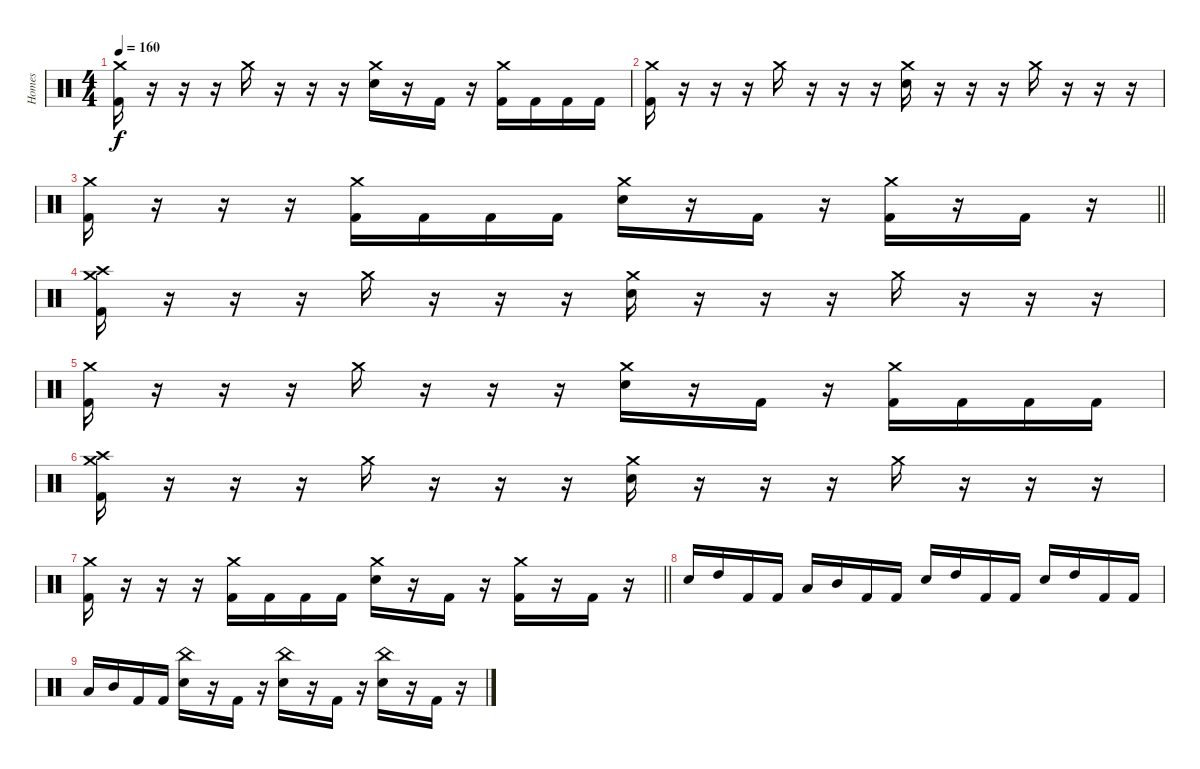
\track ("Homes" "Homes") {instrument percussion}
\staff {score}
\articulation defaults
\ts (4 4)
\tempo 160
\clef neutral
\ks c
("Crash medium (hit)" "Kick (hit) 2").16{dy f} r.16 r.16 r.16 "Crash medium (hit)".16 r.16 r.16 r.16 ("Crash medium (hit)" "Electric Snare (hit)").16 r.16 "Kick (hit) 2".16 r.16 ("Crash medium (hit)" "Kick (hit) 2").16 "Kick (hit) 2".16 "Kick (hit) 2".16 "Kick (hit) 2".16 |
("Crash medium (hit)" "Kick (hit) 2").16 r.16 r.16 r.16 "Crash medium (hit)".16 r.16 r.16 r.16 ("Crash medium (hit)" "Electric Snare (hit)").16 r.16 r.16 r.16 "Crash medium (hit)".16 r.16 r.16 r.16 |
\barLineRight lightlight
("Crash medium (hit)" "Kick (hit) 2").16 r.16 r.16 r.16 ("Crash medium (hit)" "Kick (hit) 2").16 "Kick (hit) 2".16 "Kick (hit) 2".16 "Kick (hit) 2".16 ("Crash medium (hit)" "Electric Snare (hit)").16 r.16 "Kick (hit) 2".16 r.16 ("Crash medium (hit)" "Kick (hit) 2").16 r.16 "Kick (hit) 2".16 r.16 |
("Crash high (hit)" "Crash medium (hit)" "Kick (hit) 2").16 r.16 r.16 r.16 "Crash medium (hit)".16 r.16 r.16 r.16 ("Crash medium (hit)" "Electric Snare (hit)").16 r.16 r.16 r.16 "Crash medium (hit)".16 r.16 r.16 r.16 |
("Crash medium (hit)" "Kick (hit) 2").16 r.16 r.16 r.16 "Crash medium (hit)".16 r.16 r.16 r.16 ("Crash medium (hit)" "Electric Snare (hit)").16 r.16 "Kick (hit) 2".16 r.16 ("Crash medium (hit)" "Kick (hit) 2").16 "Kick (hit) 2".16 "Kick (hit) 2".16 "Kick (hit) 2".16 |
("Crash high (hit)" "Crash medium (hit)" "Kick (hit) 2").16 r.16 r.16 r.16 "Crash medium (hit)".16 r.16 r.16 r.16 ("Crash medium (hit)" "Electric Snare (hit)").16 r.16 r.16 r.16 "Crash medium (hit)".16 r.16 r.16 r.16 |
\barLineRight lightlight
("Crash medium (hit)" "Kick (hit) 2").16 r.16 r.16 r.16 ("Crash medium (hit)" "Kick (hit) 2").16 "Kick (hit) 2".16 "Kick (hit) 2".16 "Kick (hit) 2".16 ("Crash medium (hit)" "Electric Snare (hit)").16 r.16 "Kick (hit) 2".16 r.16 ("Crash medium (hit)" "Kick (hit) 2").16 r.16 "Kick (hit) 2".16 r.16 |
"Electric Snare (hit)".16 "High Tom (hit)".16 "Kick (hit) 2".16 "Kick (hit) 2".16 "Low Tom (hit)".16 "Mid Tom (hit)".16 "Kick (hit) 2".16 "Kick (hit) 2".16 "Electric Snare (hit)".16 "High Tom (hit)".16 "Kick (hit) 2".16 "Kick (hit) 2".16 "Electric Snare (hit)".16 "High Tom (hit)".16 "Kick (hit) 2".16 "Kick (hit) 2".16 |
"Low Tom (hit)".16 "Mid Tom (hit)".16 "Kick (hit) 2".16 "Kick (hit) 2".16 ("China (hit)" "Electric Snare (hit)").16 r.16 "Kick (hit) 2".16 r.16 ("China (hit)" "Electric Snare (hit)").16 r.16 "Kick (hit) 2".16 r.16 ("China (hit)" "Electric Snare (hit)").16 r.16 "Kick (hit) 2".16 r.16
